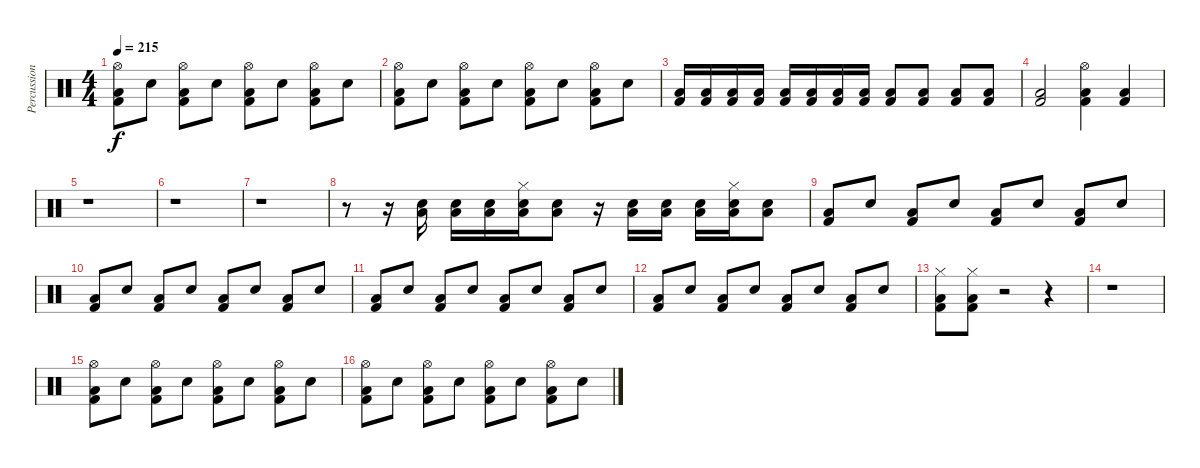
\track ("Percussion" "Percussion") {instrument percussion}
\staff {score}
\articulation defaults
\ts (4 4)
\tempo 215
\clef neutral
\ks c
("Hi-Hat (open)" "Kick (hit) 2" "Low Floor Tom (hit)").8{dy f} "Electric Snare (hit)".8 ("Hi-Hat (open)" "Kick (hit) 2" "Low Floor Tom (hit)").8 "Electric Snare (hit)".8 ("Hi-Hat (open)" "Kick (hit) 2" "Low Floor Tom (hit)").8 "Electric Snare (hit)".8 ("Hi-Hat (open)" "Kick (hit) 2" "Low Floor Tom (hit)").8 "Electric Snare (hit)".8 |
("Hi-Hat (open)" "Kick (hit) 2" "Low Floor Tom (hit)").8 "Electric Snare (hit)".8 ("Hi-Hat (open)" "Kick (hit) 2" "Low Floor Tom (hit)").8 "Electric Snare (hit)".8 ("Hi-Hat (open)" "Kick (hit) 2" "Low Floor Tom (hit)").8 "Electric Snare (hit)".8 ("Hi-Hat (open)" "Kick (hit) 2" "Low Floor Tom (hit)").8 "Electric Snare (hit)".8 |
("Kick (hit) 2" "Low Floor Tom (hit)").16 ("Kick (hit) 2" "Low Floor Tom (hit)").16 ("Kick (hit) 2" "Low Floor Tom (hit)").16 ("Kick (hit) 2" "Low Floor Tom (hit)").16 ("Kick (hit) 2" "Low Floor Tom (hit)").16 ("Kick (hit) 2" "Low Floor Tom (hit)").16 ("Kick (hit) 2" "Low Floor Tom (hit)").16 ("Kick (hit) 2" "Low Floor Tom (hit)").16 ("Kick (hit) 2" "Low Floor Tom (hit)").8 ("Kick (hit) 2" "Low Floor Tom (hit)").8 ("Kick (hit) 2" "Low Floor Tom (hit)").8 ("Kick (hit) 2" "Low Floor Tom (hit)").8 |
("Kick (hit) 2" "Low Floor Tom (hit)").2 ("Hi-Hat (open)" "Kick (hit) 2" "Low Floor Tom (hit)").4 ("Kick (hit) 2" "Low Floor Tom (hit)").4 |
r.1 |
r.1 |
r.1 |
r.8 r.16 ("Low Floor Tom (hit)" "Electric Snare (hit)").16 ("Low Floor Tom (hit)" "Electric Snare (hit)").16 ("Low Floor Tom (hit)" "Electric Snare (hit)").16 ("Hi-Hat (closed)" "Low Floor Tom (hit)" "Electric Snare (hit)").16 ("Low Floor Tom (hit)" "Electric Snare (hit)").8 r.16 ("Low Floor Tom (hit)" "Electric Snare (hit)").16 ("Low Floor Tom (hit)" "Electric Snare (hit)").16 ("Low Floor Tom (hit)" "Electric Snare (hit)").16 ("Hi-Hat (closed)" "Low Floor Tom (hit)" "Electric Snare (hit)").16 ("Low Floor Tom (hit)" "Electric Snare (hit)").8 |
("Kick (hit) 2" "Low Floor Tom (hit)").8 "Electric Snare (hit)".8 ("Kick (hit) 2" "Low Floor Tom (hit)").8 "Electric Snare (hit)".8 ("Kick (hit) 2" "Low Floor Tom (hit)").8 "Electric Snare (hit)".8 ("Kick (hit) 2" "Low Floor Tom (hit)").8 "Electric Snare (hit)".8 |
("Kick (hit) 2" "Low Floor Tom (hit)").8 "Electric Snare (hit)".8 ("Kick (hit) 2" "Low Floor Tom (hit)").8 "Electric Snare (hit)".8 ("Kick (hit) 2" "Low Floor Tom (hit)").8 "Electric Snare (hit)".8 ("Kick (hit) 2" "Low Floor Tom (hit)").8 "Electric Snare (hit)".8 |
("Kick (hit) 2" "Low Floor Tom (hit)").8 "Electric Snare (hit)".8 ("Kick (hit) 2" "Low Floor Tom (hit)").8 "Electric Snare (hit)".8 ("Kick (hit) 2" "Low Floor Tom (hit)").8 "Electric Snare (hit)".8 ("Kick (hit) 2" "Low Floor Tom (hit)").8 "Electric Snare (hit)".8 |
("Kick (hit) 2" "Low Floor Tom (hit)").8 "Electric Snare (hit)".8 ("Kick (hit) 2" "Low Floor Tom (hit)").8 "Electric Snare (hit)".8 ("Kick (hit) 2" "Low Floor Tom (hit)").8 "Electric Snare (hit)".8 ("Kick (hit) 2" "Low Floor Tom (hit)").8 "Electric Snare (hit)".8 |
("Hi-Hat (closed)" "Kick (hit) 2" "Low Floor Tom (hit)").8 ("Hi-Hat (closed)" "Kick (hit) 2" "Low Floor Tom (hit)").8 r.2 r.4 |
r.1 |
("Hi-Hat (open)" "Kick (hit) 2" "Low Floor Tom (hit)").8 "Electric Snare (hit)".8 ("Hi-Hat (open)" "Kick (hit) 2" "Low Floor Tom (hit)").8 "Electric Snare (hit)".8 ("Hi-Hat (open)" "Kick (hit) 2" "Low Floor Tom (hit)").8 "Electric Snare (hit)".8 ("Hi-Hat (open)" "Kick (hit) 2" "Low Floor Tom (hit)").8 "Electric Snare (hit)".8 |
("Hi-Hat (open)" "Kick (hit) 2" "Low Floor Tom (hit)").8 "Electric Snare (hit)".8 ("Hi-Hat (open)" "Kick (hit) 2" "Low Floor Tom (hit)").8 "Electric Snare (hit)".8 ("Hi-Hat (open)" "Kick (hit) 2" "Low Floor Tom (hit)").8 "Electric Snare (hit)".8 ("Hi-Hat (open)" "Kick (hit) 2" "Low Floor Tom (hit)").8 "Electric Snare (hit)".8
